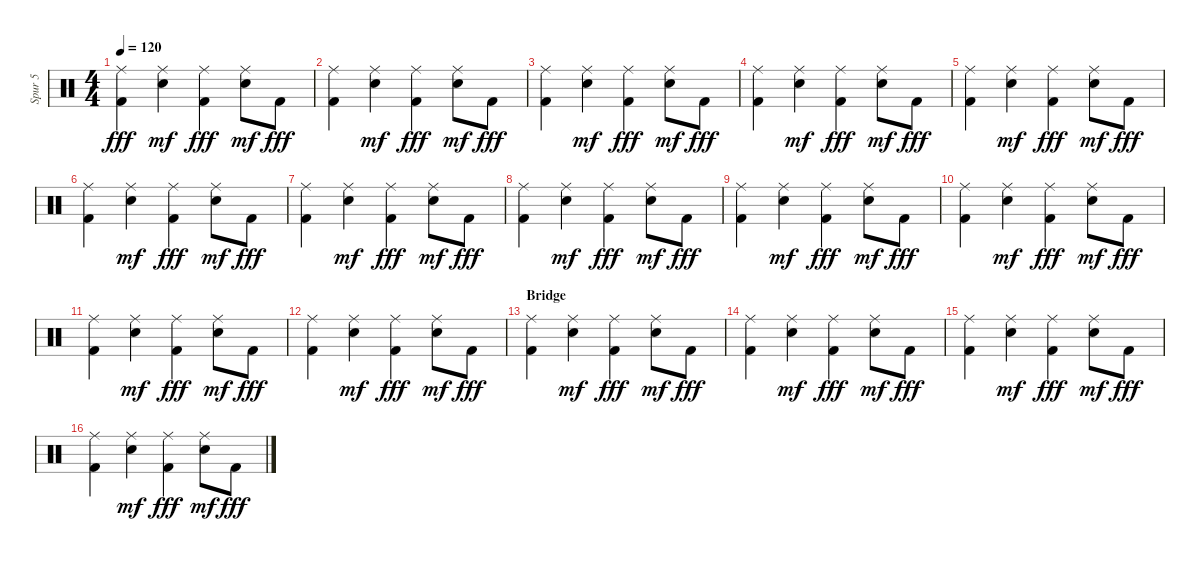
\track ("Spur 5" "Spur 5") {instrument percussion}
\staff {score}
\articulation defaults
\ts (4 4)
\tempo 120
\clef neutral
\ks c
("Ride (middle)" "Kick (hit) 2").4{dy fff} ("Ride (middle)" "Snare (hit) 2").4{dy mf} ("Ride (middle)" "Kick (hit) 2").4{dy fff} ("Ride (middle)" "Snare (hit) 2").8{dy mf} "Kick (hit) 2".8{dy fff} |
("Ride (middle)" "Kick (hit) 2").4 ("Ride (middle)" "Snare (hit) 2").4{dy mf} ("Ride (middle)" "Kick (hit) 2").4{dy fff} ("Ride (middle)" "Snare (hit) 2").8{dy mf} "Kick (hit) 2".8{dy fff} |
("Ride (middle)" "Kick (hit) 2").4 ("Ride (middle)" "Snare (hit) 2").4{dy mf} ("Ride (middle)" "Kick (hit) 2").4{dy fff} ("Ride (middle)" "Snare (hit) 2").8{dy mf} "Kick (hit) 2".8{dy fff} |
("Ride (middle)" "Kick (hit) 2").4 ("Ride (middle)" "Snare (hit) 2").4{dy mf} ("Ride (middle)" "Kick (hit) 2").4{dy fff} ("Ride (middle)" "Snare (hit) 2").8{dy mf} "Kick (hit) 2".8{dy fff} |
("Ride (middle)" "Kick (hit) 2").4 ("Ride (middle)" "Snare (hit) 2").4{dy mf} ("Ride (middle)" "Kick (hit) 2").4{dy fff} ("Ride (middle)" "Snare (hit) 2").8{dy mf} "Kick (hit) 2".8{dy fff} |
("Ride (middle)" "Kick (hit) 2").4 ("Ride (middle)" "Snare (hit) 2").4{dy mf} ("Ride (middle)" "Kick (hit) 2").4{dy fff} ("Ride (middle)" "Snare (hit) 2").8{dy mf} "Kick (hit) 2".8{dy fff} |
("Ride (middle)" "Kick (hit) 2").4 ("Ride (middle)" "Snare (hit) 2").4{dy mf} ("Ride (middle)" "Kick (hit) 2").4{dy fff} ("Ride (middle)" "Snare (hit) 2").8{dy mf} "Kick (hit) 2".8{dy fff} |
("Ride (middle)" "Kick (hit) 2").4 ("Ride (middle)" "Snare (hit) 2").4{dy mf} ("Ride (middle)" "Kick (hit) 2").4{dy fff} ("Ride (middle)" "Snare (hit) 2").8{dy mf} "Kick (hit) 2".8{dy fff} |
("Ride (middle)" "Kick (hit) 2").4 ("Ride (middle)" "Snare (hit) 2").4{dy mf} ("Ride (middle)" "Kick (hit) 2").4{dy fff} ("Ride (middle)" "Snare (hit) 2").8{dy mf} "Kick (hit) 2".8{dy fff} |
("Ride (middle)" "Kick (hit) 2").4 ("Ride (middle)" "Snare (hit) 2").4{dy mf} ("Ride (middle)" "Kick (hit) 2").4{dy fff} ("Ride (middle)" "Snare (hit) 2").8{dy mf} "Kick (hit) 2".8{dy fff} |
("Ride (middle)" "Kick (hit) 2").4 ("Ride (middle)" "Snare (hit) 2").4{dy mf} ("Ride (middle)" "Kick (hit) 2").4{dy fff} ("Ride (middle)" "Snare (hit) 2").8{dy mf} "Kick (hit) 2".8{dy fff} |
("Ride (middle)" "Kick (hit) 2").4 ("Ride (middle)" "Snare (hit) 2").4{dy mf} ("Ride (middle)" "Kick (hit) 2").4{dy fff} ("Ride (middle)" "Snare (hit) 2").8{dy mf} "Kick (hit) 2".8{dy fff} |
\section ("" "Bridge")
("Ride (middle)" "Kick (hit) 2").4 ("Ride (middle)" "Snare (hit) 2").4{dy mf} ("Ride (middle)" "Kick (hit) 2").4{dy fff} ("Ride (middle)" "Snare (hit) 2").8{dy mf} "Kick (hit) 2".8{dy fff} |
("Ride (middle)" "Kick (hit) 2").4 ("Ride (middle)" "Snare (hit) 2").4{dy mf} ("Ride (middle)" "Kick (hit) 2").4{dy fff} ("Ride (middle)" "Snare (hit) 2").8{dy mf} "Kick (hit) 2".8{dy fff} |
("Ride (middle)" "Kick (hit) 2").4 ("Ride (middle)" "Snare (hit) 2").4{dy mf} ("Ride (middle)" "Kick (hit) 2").4{dy fff} ("Ride (middle)" "Snare (hit) 2").8{dy mf} "Kick (hit) 2".8{dy fff} |
("Ride (middle)" "Kick (hit) 2").4 ("Ride (middle)" "Snare (hit) 2").4{dy mf} ("Ride (middle)" "Kick (hit) 2").4{dy fff} ("Ride (middle)" "Snare (hit) 2").8{dy mf} "Kick (hit) 2".8{dy fff}
